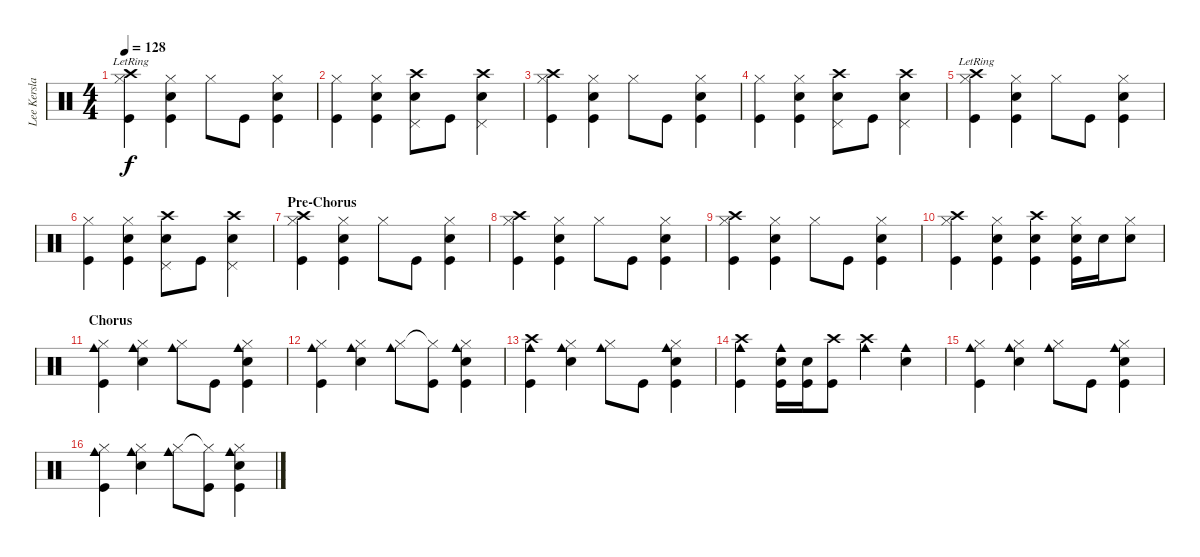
\track ("Lee Kerslake (Drums)" "Lee Kersla") {instrument percussion}
\staff {score}
\articulation defaults
\ts (4 4)
\tempo 128
\clef neutral
\ks c
("Crash high (hit)"{lr} "Hi-Hat (closed)" "Kick (hit)").4{dy f} ("Hi-Hat (closed)" "Kick (hit)" "Electric Snare (hit)").4 "Hi-Hat (closed)".8 "Kick (hit)".8 ("Hi-Hat (closed)" "Electric Snare (hit)" "Kick (hit)").4 |
("Hi-Hat (closed)" "Kick (hit)").4 ("Hi-Hat (closed)" "Kick (hit)" "Electric Snare (hit)").4 ("Crash high (hit)" "Electric Snare (hit)" "Pedal Hi-Hat (hit)").8 "Kick (hit)".8 ("Crash high (hit)" "Electric Snare (hit)" "Pedal Hi-Hat (hit)").4 |
("Crash high (hit)" "Hi-Hat (closed)" "Kick (hit)").4 ("Hi-Hat (closed)" "Kick (hit)" "Electric Snare (hit)").4 "Hi-Hat (closed)".8 "Kick (hit)".8 ("Hi-Hat (closed)" "Electric Snare (hit)" "Kick (hit)").4 |
("Hi-Hat (closed)" "Kick (hit)").4 ("Hi-Hat (closed)" "Kick (hit)" "Electric Snare (hit)").4 ("Crash high (hit)" "Electric Snare (hit)" "Pedal Hi-Hat (hit)").8 "Kick (hit)".8 ("Crash high (hit)" "Electric Snare (hit)" "Pedal Hi-Hat (hit)").4 |
("Crash high (hit)"{lr} "Hi-Hat (closed)" "Kick (hit)").4 ("Hi-Hat (closed)" "Kick (hit)" "Electric Snare (hit)").4 "Hi-Hat (closed)".8 "Kick (hit)".8 ("Hi-Hat (closed)" "Electric Snare (hit)" "Kick (hit)").4 |
("Hi-Hat (closed)" "Kick (hit)").4 ("Hi-Hat (closed)" "Kick (hit)" "Electric Snare (hit)").4 ("Crash high (hit)" "Electric Snare (hit)" "Pedal Hi-Hat (hit)").8 "Kick (hit)".8 ("Crash high (hit)" "Electric Snare (hit)" "Pedal Hi-Hat (hit)").4 |
\section ("" "Pre-Chorus")
("Crash high (hit)" "Hi-Hat (closed)" "Kick (hit)").4 ("Hi-Hat (closed)" "Kick (hit)" "Electric Snare (hit)").4 "Hi-Hat (closed)".8 "Kick (hit)".8 ("Hi-Hat (closed)" "Electric Snare (hit)" "Kick (hit)").4 |
("Crash high (hit)" "Hi-Hat (closed)" "Kick (hit)").4 ("Hi-Hat (closed)" "Kick (hit)" "Electric Snare (hit)").4 "Hi-Hat (closed)".8 "Kick (hit)".8 ("Hi-Hat (closed)" "Electric Snare (hit)" "Kick (hit)").4 |
("Crash high (hit)" "Hi-Hat (closed)" "Kick (hit)").4 ("Hi-Hat (closed)" "Kick (hit)" "Electric Snare (hit)").4 "Hi-Hat (closed)".8 "Kick (hit)".8 ("Hi-Hat (closed)" "Electric Snare (hit)" "Kick (hit)").4 |
("Crash high (hit)" "Hi-Hat (closed)" "Kick (hit)").4 ("Hi-Hat (closed)" "Kick (hit)" "Electric Snare (hit)").4 ("Crash high (hit)" "Electric Snare (hit)" "Kick (hit)").4 ("Electric Snare (hit)" "Hi-Hat (closed)" "Kick (hit)").16 "Electric Snare (hit)".16 ("Electric Snare (hit)" "Hi-Hat (closed)").8 |
\section ("" "Chorus")
("Kick (hit)" "Hi-Hat (closed)" "Cowbell medium (hit)").4 ("Hi-Hat (closed)" "Electric Snare (hit)" "Cowbell medium (hit)").4 ("Hi-Hat (closed)" "Cowbell medium (hit)").8 "Kick (hit)".8 ("Kick (hit)" "Hi-Hat (closed)" "Electric Snare (hit)" "Cowbell medium (hit)").4 |
("Kick (hit)" "Hi-Hat (closed)" "Cowbell medium (hit)").4 ("Hi-Hat (closed)" "Electric Snare (hit)" "Cowbell medium (hit)").4 ("Hi-Hat (closed)" "Cowbell medium (hit)").8 ("Hi-Hat (closed)"{t} "Kick (hit)").8 ("Kick (hit)" "Hi-Hat (closed)" "Electric Snare (hit)" "Cowbell medium (hit)").4 |
("Kick (hit)" "Crash high (hit)" "Cowbell medium (hit)").4 ("Hi-Hat (closed)" "Electric Snare (hit)" "Cowbell medium (hit)").4 ("Hi-Hat (closed)" "Cowbell medium (hit)").8 "Kick (hit)".8 ("Kick (hit)" "Electric Snare (hit)" "Hi-Hat (closed)" "Cowbell medium (hit)").4 |
("Crash high (hit)" "Kick (hit)" "Cowbell medium (hit)").4 ("Electric Snare (hit)" "Kick (hit)" "Cowbell medium (hit)").16 ("Electric Snare (hit)" "Kick (hit)").16 ("Kick (hit)" "Crash high (hit)").8 ("Crash high (hit)" "Cowbell medium (hit)").4 ("Electric Snare (hit)" "Cowbell medium (hit)").4 |
("Kick (hit)" "Hi-Hat (closed)" "Cowbell medium (hit)").4 ("Hi-Hat (closed)" "Electric Snare (hit)" "Cowbell medium (hit)").4 ("Hi-Hat (closed)" "Cowbell medium (hit)").8 "Kick (hit)".8 ("Kick (hit)" "Hi-Hat (closed)" "Electric Snare (hit)" "Cowbell medium (hit)").4 |
("Kick (hit)" "Hi-Hat (closed)" "Cowbell medium (hit)").4 ("Hi-Hat (closed)" "Electric Snare (hit)" "Cowbell medium (hit)").4 ("Hi-Hat (closed)" "Cowbell medium (hit)").8 ("Hi-Hat (closed)"{t} "Kick (hit)").8 ("Kick (hit)" "Hi-Hat (closed)" "Electric Snare (hit)" "Cowbell medium (hit)").4
